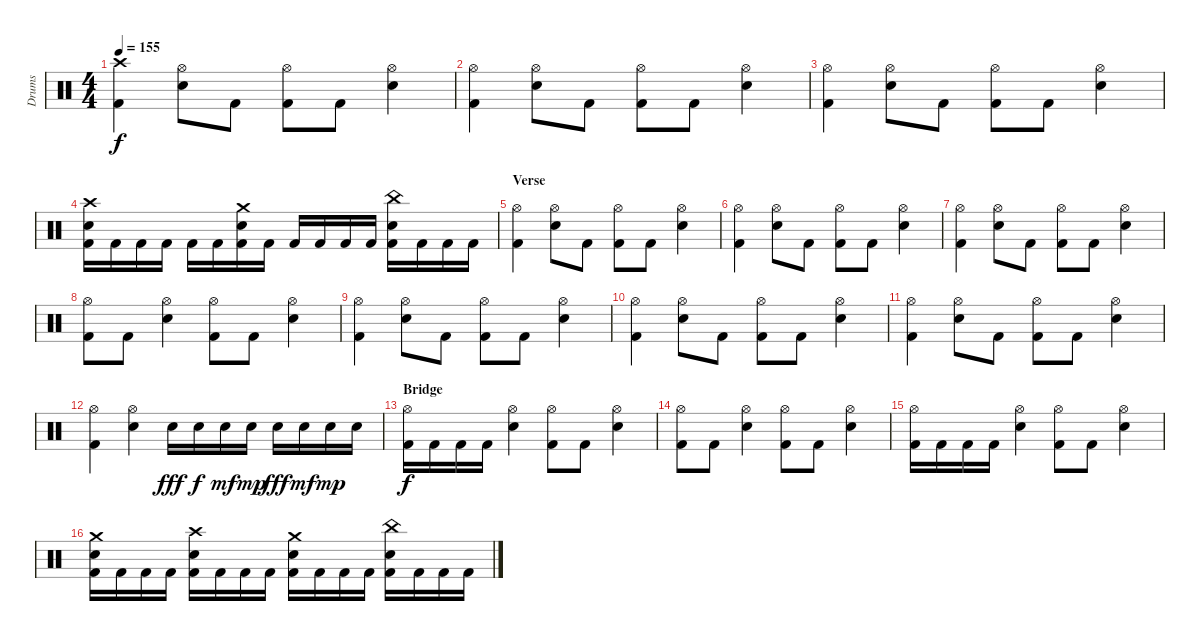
\track ("Drums" "Drums") {instrument percussion}
\staff {score}
\articulation defaults
\ts (4 4)
\tempo 155
\clef neutral
\ks c
("Crash high (hit)" "Kick (hit) 2").4{dy f} ("Hi-Hat (open)" "Snare (hit) 2").8 "Kick (hit) 2".8 ("Hi-Hat (open)" "Kick (hit) 2").8 "Kick (hit) 2".8 ("Hi-Hat (open)" "Snare (hit) 2").4 |
("Hi-Hat (open)" "Kick (hit) 2").4 ("Hi-Hat (open)" "Snare (hit) 2").8 "Kick (hit) 2".8 ("Hi-Hat (open)" "Kick (hit) 2").8 "Kick (hit) 2".8 ("Hi-Hat (open)" "Snare (hit) 2").4 |
("Hi-Hat (open)" "Kick (hit) 2").4 ("Hi-Hat (open)" "Snare (hit) 2").8 "Kick (hit) 2".8 ("Hi-Hat (open)" "Kick (hit) 2").8 "Kick (hit) 2".8 ("Hi-Hat (open)" "Snare (hit) 2").4 |
("Crash high (hit)" "Snare (hit) 2" "Kick (hit) 2").16 "Kick (hit) 2".16 "Kick (hit) 2".16 "Kick (hit) 2".16 "Kick (hit) 2".16 "Kick (hit) 2".16 ("Crash medium (hit)" "Snare (hit) 2" "Kick (hit) 2").16 "Kick (hit) 2".16 "Kick (hit) 2".16 "Kick (hit) 2".16 "Kick (hit) 2".16 "Kick (hit) 2".16 ("China (hit)" "Snare (hit) 2" "Kick (hit) 2").16 "Kick (hit) 2".16 "Kick (hit) 2".16 "Kick (hit) 2".16 |
\section ("" "Verse")
("Hi-Hat (open)" "Kick (hit) 2").4 ("Hi-Hat (open)" "Snare (hit) 2").8 "Kick (hit) 2".8 ("Hi-Hat (open)" "Kick (hit) 2").8 "Kick (hit) 2".8 ("Hi-Hat (open)" "Snare (hit) 2").4 |
("Hi-Hat (open)" "Kick (hit) 2").4 ("Hi-Hat (open)" "Snare (hit) 2").8 "Kick (hit) 2".8 ("Hi-Hat (open)" "Kick (hit) 2").8 "Kick (hit) 2".8 ("Hi-Hat (open)" "Snare (hit) 2").4 |
("Hi-Hat (open)" "Kick (hit) 2").4 ("Hi-Hat (open)" "Snare (hit) 2").8 "Kick (hit) 2".8 ("Hi-Hat (open)" "Kick (hit) 2").8 "Kick (hit) 2".8 ("Hi-Hat (open)" "Snare (hit) 2").4 |
("Hi-Hat (open)" "Kick (hit) 2").8 "Kick (hit) 2".8 ("Hi-Hat (open)" "Snare (hit) 2").4 ("Hi-Hat (open)" "Kick (hit) 2").8 "Kick (hit) 2".8 ("Hi-Hat (open)" "Snare (hit) 2").4 |
("Hi-Hat (open)" "Kick (hit) 2").4 ("Hi-Hat (open)" "Snare (hit) 2").8 "Kick (hit) 2".8 ("Hi-Hat (open)" "Kick (hit) 2").8 "Kick (hit) 2".8 ("Hi-Hat (open)" "Snare (hit) 2").4 |
("Hi-Hat (open)" "Kick (hit) 2").4 ("Hi-Hat (open)" "Snare (hit) 2").8 "Kick (hit) 2".8 ("Hi-Hat (open)" "Kick (hit) 2").8 "Kick (hit) 2".8 ("Hi-Hat (open)" "Snare (hit) 2").4 |
("Hi-Hat (open)" "Kick (hit) 2").4 ("Hi-Hat (open)" "Snare (hit) 2").8 "Kick (hit) 2".8 ("Hi-Hat (open)" "Kick (hit) 2").8 "Kick (hit) 2".8 ("Hi-Hat (open)" "Snare (hit) 2").4 |
("Hi-Hat (open)" "Kick (hit) 2").4 ("Hi-Hat (open)" "Snare (hit) 2").4 "Snare (hit) 2".16{dy fff} "Snare (hit) 2".16{dy f} "Snare (hit) 2".16{dy mf} "Snare (hit) 2".16{dy mp} "Snare (hit) 2".16{dy fff} "Snare (hit) 2".16{dy mf} "Snare (hit) 2".16{dy mp} "Snare (hit) 2".16 |
\section ("" "Bridge")
("Hi-Hat (open)" "Kick (hit) 2").16{dy f} "Kick (hit) 2".16 "Kick (hit) 2".16 "Kick (hit) 2".16 ("Hi-Hat (open)" "Snare (hit) 2").4 ("Hi-Hat (open)" "Kick (hit) 2").8 "Kick (hit) 2".8 ("Hi-Hat (open)" "Snare (hit) 2").4 |
("Hi-Hat (open)" "Kick (hit) 2").8 "Kick (hit) 2".8 ("Hi-Hat (open)" "Snare (hit) 2").4 ("Hi-Hat (open)" "Kick (hit) 2").8 "Kick (hit) 2".8 ("Hi-Hat (open)" "Snare (hit) 2").4 |
("Hi-Hat (open)" "Kick (hit) 2").16 "Kick (hit) 2".16 "Kick (hit) 2".16 "Kick (hit) 2".16 ("Hi-Hat (open)" "Snare (hit) 2").4 ("Hi-Hat (open)" "Kick (hit) 2").8 "Kick (hit) 2".8 ("Hi-Hat (open)" "Snare (hit) 2").4 |
("Crash medium (hit)" "Snare (hit) 2" "Kick (hit) 2").16 "Kick (hit) 2".16 "Kick (hit) 2".16 "Kick (hit) 2".16 ("Crash high (hit)" "Snare (hit) 2" "Kick (hit) 2").16 "Kick (hit) 2".16 "Kick (hit) 2".16 "Kick (hit) 2".16 ("Crash medium (hit)" "Snare (hit) 2" "Kick (hit) 2").16 "Kick (hit) 2".16 "Kick (hit) 2".16 "Kick (hit) 2".16 ("China (hit)" "Snare (hit) 2" "Kick (hit) 2").16 "Kick (hit) 2".16 "Kick (hit) 2".16 "Kick (hit) 2".16
